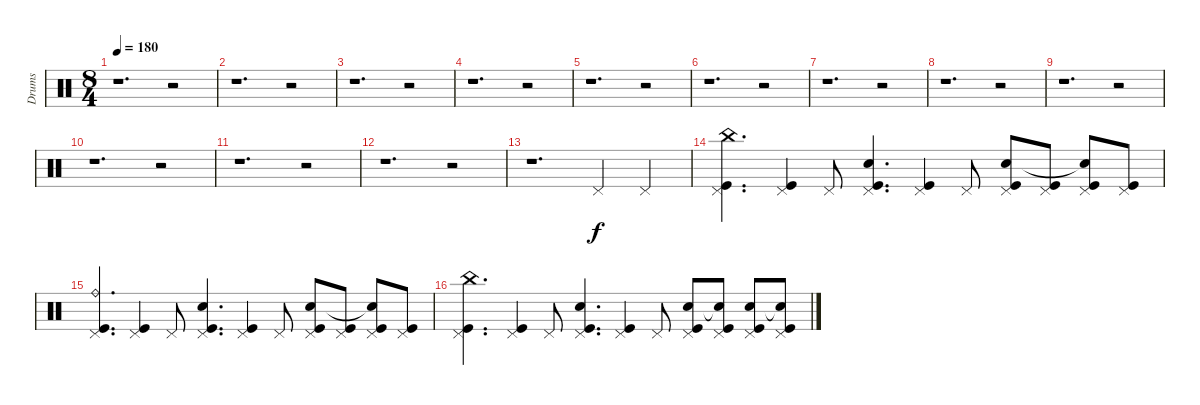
\track ("Drums" "Drums") {instrument percussion}
\staff {score}
\articulation defaults
\ts (8 4)
\tempo 180
\clef neutral
\ks c
r.1{d dy f} r.2 |
r.1{d} r.2 |
r.1{d} r.2 |
r.1{d} r.2 |
r.1{d} r.2 |
r.1{d} r.2 |
r.1{d} r.2 |
r.1{d} r.2 |
r.1{d} r.2 |
r.1{d} r.2 |
r.1{d} r.2 |
r.1{d} r.2 |
r.1{d} "Pedal Hi-Hat (hit)".4 "Pedal Hi-Hat (hit)".4 |
("Pedal Hi-Hat (hit)" "Kick (hit)" "China (hit)").4{d} ("Pedal Hi-Hat (hit)" "Kick (hit)").4 "Pedal Hi-Hat (hit)".8 ("Pedal Hi-Hat (hit)" "Kick (hit)" "Electric Snare (hit)").4{d} ("Pedal Hi-Hat (hit)" "Kick (hit)").4 "Pedal Hi-Hat (hit)".8 ("Pedal Hi-Hat (hit)" "Kick (hit)" "Electric Snare (hit)").8 ("Pedal Hi-Hat (hit)" "Kick (hit)").8 ("Pedal Hi-Hat (hit)" "Kick (hit)" "Electric Snare (hit)"{t}).8 ("Pedal Hi-Hat (hit)" "Kick (hit)").8 |
("Pedal Hi-Hat (hit)" "Kick (hit)" "Ride (bell)").4{d} ("Pedal Hi-Hat (hit)" "Kick (hit)").4 "Pedal Hi-Hat (hit)".8 ("Pedal Hi-Hat (hit)" "Kick (hit)" "Electric Snare (hit)").4{d} ("Pedal Hi-Hat (hit)" "Kick (hit)").4 "Pedal Hi-Hat (hit)".8 ("Pedal Hi-Hat (hit)" "Kick (hit)" "Electric Snare (hit)").8 ("Pedal Hi-Hat (hit)" "Kick (hit)").8 ("Pedal Hi-Hat (hit)" "Kick (hit)" "Electric Snare (hit)"{t}).8 ("Pedal Hi-Hat (hit)" "Kick (hit)").8 |
("Pedal Hi-Hat (hit)" "Kick (hit)" "China (hit)").4{d} ("Pedal Hi-Hat (hit)" "Kick (hit)").4 "Pedal Hi-Hat (hit)".8 ("Pedal Hi-Hat (hit)" "Kick (hit)" "Electric Snare (hit)").4{d} ("Pedal Hi-Hat (hit)" "Kick (hit)").4 "Pedal Hi-Hat (hit)".8 ("Pedal Hi-Hat (hit)" "Kick (hit)" "Electric Snare (hit)").8 ("Pedal Hi-Hat (hit)" "Kick (hit)" "Electric Snare (hit)"{t}).8 ("Pedal Hi-Hat (hit)" "Kick (hit)" "Electric Snare (hit)").8 ("Pedal Hi-Hat (hit)" "Kick (hit)" "Electric Snare (hit)"{t}).8
